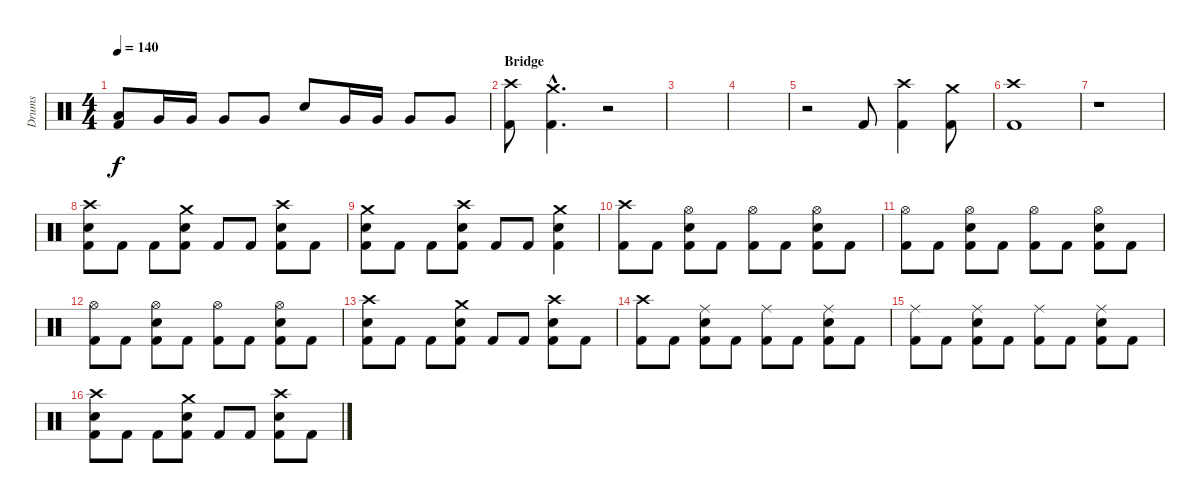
\track ("Drums" "Drums") {instrument percussion}
\staff {score}
\articulation defaults
\ts (4 4)
\tempo 140
\clef neutral
\ks c
("Low Tom (hit)" "Kick (hit) 2").8{dy f volume 13} "Very Low Tom (hit)".16 "Very Low Tom (hit)".16 "Very Low Tom (hit)".8 "Very Low Tom (hit)".8 "Electric Snare (hit)".8 "Very Low Tom (hit)".16 "Very Low Tom (hit)".16 "Very Low Tom (hit)".8 "Very Low Tom (hit)".8 |
\section ("" "Bridge")
("Crash high (hit)" "Kick (hit) 2").8 ("Crash medium (hit)"{hac} "Kick (hit) 2"{hac}).4{d} r.2 |
|
|
r.2 "Kick (hit) 2".8 ("Crash high (hit)" "Kick (hit) 2").4 ("Crash medium (hit)" "Kick (hit) 2").8 |
("Crash high (hit)" "Kick (hit) 2").1 |
r.1 |
("Crash high (hit)" "Electric Snare (hit)" "Kick (hit) 2").8 "Kick (hit) 2".8 "Kick (hit) 2".8 ("Crash medium (hit)" "Electric Snare (hit)" "Kick (hit) 2").8 "Kick (hit) 2".8 "Kick (hit) 2".8 ("Crash high (hit)" "Electric Snare (hit)" "Kick (hit) 2").8 "Kick (hit) 2".8 |
("Crash medium (hit)" "Electric Snare (hit)" "Kick (hit) 2").8 "Kick (hit) 2".8 "Kick (hit) 2".8 ("Crash high (hit)" "Electric Snare (hit)" "Kick (hit) 2").8 "Kick (hit) 2".8 "Kick (hit) 2".8 ("Crash medium (hit)" "Electric Snare (hit)" "Kick (hit) 2").4 |
("Crash high (hit)" "Kick (hit) 2").8 "Kick (hit) 2".8 ("Hi-Hat (open)" "Electric Snare (hit)" "Kick (hit) 2").8 "Kick (hit) 2".8 ("Hi-Hat (open)" "Kick (hit) 2").8 "Kick (hit) 2".8 ("Hi-Hat (open)" "Electric Snare (hit)" "Kick (hit) 2").8 "Kick (hit) 2".8 |
("Hi-Hat (open)" "Kick (hit) 2").8 "Kick (hit) 2".8 ("Hi-Hat (open)" "Electric Snare (hit)" "Kick (hit) 2").8 "Kick (hit) 2".8 ("Hi-Hat (open)" "Kick (hit) 2").8 "Kick (hit) 2".8 ("Hi-Hat (open)" "Electric Snare (hit)" "Kick (hit) 2").8 "Kick (hit) 2".8 |
("Hi-Hat (open)" "Kick (hit) 2").8 "Kick (hit) 2".8 ("Hi-Hat (open)" "Electric Snare (hit)" "Kick (hit) 2").8 "Kick (hit) 2".8 ("Hi-Hat (open)" "Kick (hit) 2").8 "Kick (hit) 2".8 ("Hi-Hat (open)" "Electric Snare (hit)" "Kick (hit) 2").8 "Kick (hit) 2".8 |
("Crash high (hit)" "Electric Snare (hit)" "Kick (hit) 2").8 "Kick (hit) 2".8 "Kick (hit) 2".8 ("Crash medium (hit)" "Electric Snare (hit)" "Kick (hit) 2").8 "Kick (hit) 2".8 "Kick (hit) 2".8 ("Crash high (hit)" "Electric Snare (hit)" "Kick (hit) 2").8 "Kick (hit) 2".8 |
("Crash high (hit)" "Kick (hit) 2").8 "Kick (hit) 2".8 ("Ride (middle)" "Electric Snare (hit)" "Kick (hit) 2").8 "Kick (hit) 2".8 ("Ride (middle)" "Kick (hit) 2").8 "Kick (hit) 2".8 ("Ride (middle)" "Electric Snare (hit)" "Kick (hit) 2").8 "Kick (hit) 2".8 |
("Ride (middle)" "Kick (hit) 2").8 "Kick (hit) 2".8 ("Ride (middle)" "Electric Snare (hit)" "Kick (hit) 2").8 "Kick (hit) 2".8 ("Ride (middle)" "Kick (hit) 2").8 "Kick (hit) 2".8 ("Ride (middle)" "Electric Snare (hit)" "Kick (hit) 2").8 "Kick (hit) 2".8 |
("Crash high (hit)" "Electric Snare (hit)" "Kick (hit) 2").8 "Kick (hit) 2".8 "Kick (hit) 2".8 ("Crash medium (hit)" "Electric Snare (hit)" "Kick (hit) 2").8 "Kick (hit) 2".8 "Kick (hit) 2".8 ("Crash high (hit)" "Electric Snare (hit)" "Kick (hit) 2").8 "Kick (hit) 2".8
